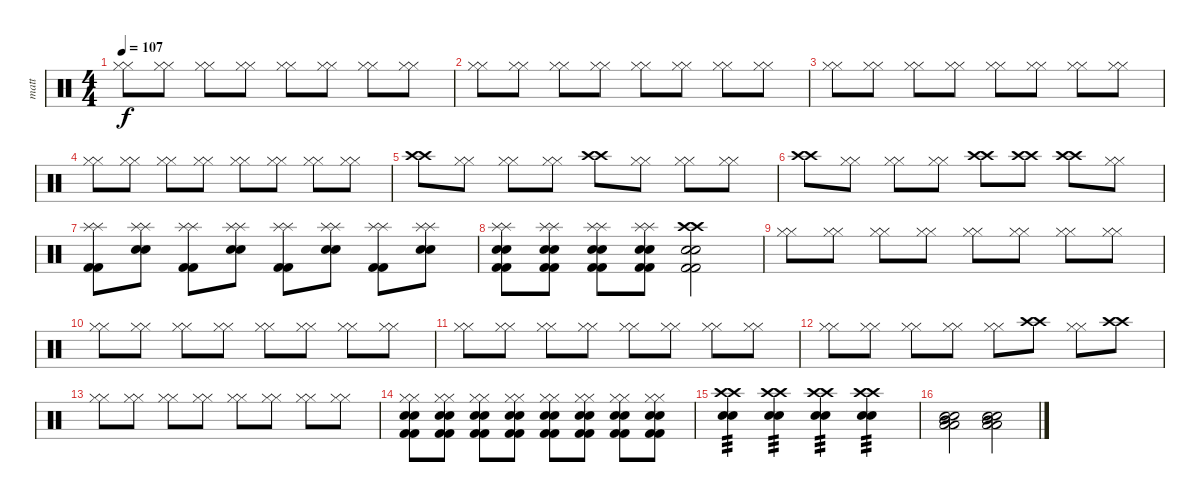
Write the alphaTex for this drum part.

\track ("matt" "matt") {instrument percussion}
\staff {score}
\articulation defaults
\ts (4 4)
\tempo 107
\clef neutral
\ks c
("Hi-Hat (closed)" "Hi-Hat (closed)").8{dy f} ("Hi-Hat (closed)" "Hi-Hat (closed)").8 ("Hi-Hat (closed)" "Hi-Hat (closed)").8 ("Hi-Hat (closed)" "Hi-Hat (closed)").8 ("Hi-Hat (closed)" "Hi-Hat (closed)").8 ("Hi-Hat (closed)" "Hi-Hat (closed)").8 ("Hi-Hat (closed)" "Hi-Hat (closed)").8 ("Hi-Hat (closed)" "Hi-Hat (closed)").8 |
("Hi-Hat (closed)" "Hi-Hat (closed)").8 ("Hi-Hat (closed)" "Hi-Hat (closed)").8 ("Hi-Hat (closed)" "Hi-Hat (closed)").8 ("Hi-Hat (closed)" "Hi-Hat (closed)").8 ("Hi-Hat (closed)" "Hi-Hat (closed)").8 ("Hi-Hat (closed)" "Hi-Hat (closed)").8 ("Hi-Hat (closed)" "Hi-Hat (closed)").8 ("Hi-Hat (closed)" "Hi-Hat (closed)").8 |
("Hi-Hat (closed)" "Hi-Hat (closed)").8 ("Hi-Hat (closed)" "Hi-Hat (closed)").8 ("Hi-Hat (closed)" "Hi-Hat (closed)").8 ("Hi-Hat (closed)" "Hi-Hat (closed)").8 ("Hi-Hat (closed)" "Hi-Hat (closed)").8 ("Hi-Hat (closed)" "Hi-Hat (closed)").8 ("Hi-Hat (closed)" "Hi-Hat (closed)").8 ("Hi-Hat (closed)" "Hi-Hat (closed)").8 |
("Hi-Hat (closed)" "Hi-Hat (closed)").8 ("Hi-Hat (closed)" "Hi-Hat (closed)").8 ("Hi-Hat (closed)" "Hi-Hat (closed)").8 ("Hi-Hat (closed)" "Hi-Hat (closed)").8 ("Hi-Hat (closed)" "Hi-Hat (closed)").8 ("Hi-Hat (closed)" "Hi-Hat (closed)").8 ("Hi-Hat (closed)" "Hi-Hat (closed)").8 ("Hi-Hat (closed)" "Hi-Hat (closed)").8 |
("Crash high (hit)" "Crash high (hit)").8 ("Hi-Hat (closed)" "Hi-Hat (closed)").8 ("Hi-Hat (closed)" "Hi-Hat (closed)").8 ("Hi-Hat (closed)" "Hi-Hat (closed)").8 ("Crash high (hit)" "Crash high (hit)").8 ("Hi-Hat (closed)" "Hi-Hat (closed)").8 ("Hi-Hat (closed)" "Hi-Hat (closed)").8 ("Hi-Hat (closed)" "Hi-Hat (closed)").8 |
("Crash high (hit)" "Crash high (hit)").8 ("Hi-Hat (closed)" "Hi-Hat (closed)").8 ("Hi-Hat (closed)" "Hi-Hat (closed)").8 ("Hi-Hat (closed)" "Hi-Hat (closed)").8 ("Crash high (hit)" "Crash high (hit)").8 ("Crash high (hit)" "Crash high (hit)").8 ("Crash high (hit)" "Crash high (hit)").8 ("Hi-Hat (closed)" "Hi-Hat (closed)").8 |
("Splash (hit)" "Splash (hit)" "Kick (hit) 2" "Kick (hit) 2").8 ("Splash (hit)" "Splash (hit)" "Snare (hit) 2" "Snare (hit) 2").8 ("Splash (hit)" "Splash (hit)" "Kick (hit) 2" "Kick (hit) 2").8 ("Splash (hit)" "Splash (hit)" "Snare (hit) 2" "Snare (hit) 2").8 ("Splash (hit)" "Splash (hit)" "Kick (hit) 2" "Kick (hit) 2").8 ("Splash (hit)" "Splash (hit)" "Snare (hit) 2" "Snare (hit) 2").8 ("Splash (hit)" "Splash (hit)" "Kick (hit) 2" "Kick (hit) 2").8 ("Splash (hit)" "Splash (hit)" "Snare (hit) 2" "Snare (hit) 2").8 |
("Splash (hit)" "Splash (hit)" "Kick (hit) 2" "Kick (hit) 2" "Snare (hit) 2" "Snare (hit) 2").8 ("Splash (hit)" "Splash (hit)" "Kick (hit) 2" "Kick (hit) 2" "Snare (hit) 2" "Snare (hit) 2").8 ("Splash (hit)" "Splash (hit)" "Kick (hit) 2" "Kick (hit) 2" "Snare (hit) 2" "Snare (hit) 2").8 ("Splash (hit)" "Splash (hit)" "Kick (hit) 2" "Kick (hit) 2" "Snare (hit) 2" "Snare (hit) 2").8 ("Crash high (hit)" "Crash high (hit)" "Kick (hit) 2" "Kick (hit) 2" "Snare (hit) 2" "Snare (hit) 2").2 |
("Hi-Hat (closed)" "Hi-Hat (closed)").8 ("Hi-Hat (closed)" "Hi-Hat (closed)").8 ("Hi-Hat (closed)" "Hi-Hat (closed)").8 ("Hi-Hat (closed)" "Hi-Hat (closed)").8 ("Hi-Hat (closed)" "Hi-Hat (closed)").8 ("Hi-Hat (closed)" "Hi-Hat (closed)").8 ("Hi-Hat (closed)" "Hi-Hat (closed)").8 ("Hi-Hat (closed)" "Hi-Hat (closed)").8 |
("Hi-Hat (closed)" "Hi-Hat (closed)").8 ("Hi-Hat (closed)" "Hi-Hat (closed)").8 ("Hi-Hat (closed)" "Hi-Hat (closed)").8 ("Hi-Hat (closed)" "Hi-Hat (closed)").8 ("Hi-Hat (closed)" "Hi-Hat (closed)").8 ("Hi-Hat (closed)" "Hi-Hat (closed)").8 ("Hi-Hat (closed)" "Hi-Hat (closed)").8 ("Hi-Hat (closed)" "Hi-Hat (closed)").8 |
("Hi-Hat (closed)" "Hi-Hat (closed)").8 ("Hi-Hat (closed)" "Hi-Hat (closed)").8 ("Hi-Hat (closed)" "Hi-Hat (closed)").8 ("Hi-Hat (closed)" "Hi-Hat (closed)").8 ("Hi-Hat (closed)" "Hi-Hat (closed)").8 ("Hi-Hat (closed)" "Hi-Hat (closed)").8 ("Hi-Hat (closed)" "Hi-Hat (closed)").8 ("Hi-Hat (closed)" "Hi-Hat (closed)").8 |
("Hi-Hat (closed)" "Hi-Hat (closed)").8 ("Hi-Hat (closed)" "Hi-Hat (closed)").8 ("Hi-Hat (closed)" "Hi-Hat (closed)").8 ("Hi-Hat (closed)" "Hi-Hat (closed)").8 ("Hi-Hat (closed)" "Hi-Hat (closed)").8 ("Crash high (hit)" "Crash high (hit)").8 ("Hi-Hat (closed)" "Hi-Hat (closed)").8 ("Crash high (hit)" "Crash high (hit)").8 |
("Hi-Hat (closed)" "Hi-Hat (closed)").8 ("Hi-Hat (closed)" "Hi-Hat (closed)").8 ("Hi-Hat (closed)" "Hi-Hat (closed)").8 ("Hi-Hat (closed)" "Hi-Hat (closed)").8 ("Hi-Hat (closed)" "Hi-Hat (closed)").8 ("Hi-Hat (closed)" "Hi-Hat (closed)").8 ("Hi-Hat (closed)" "Hi-Hat (closed)").8 ("Hi-Hat (closed)" "Hi-Hat (closed)").8 |
("Hi-Hat (closed)" "Hi-Hat (closed)" "Kick (hit) 2" "Kick (hit) 2" "Snare (hit) 2" "Snare (hit) 2").8 ("Hi-Hat (closed)" "Hi-Hat (closed)" "Kick (hit) 2" "Kick (hit) 2" "Snare (hit) 2" "Snare (hit) 2").8 ("Hi-Hat (closed)" "Hi-Hat (closed)" "Kick (hit) 2" "Kick (hit) 2" "Snare (hit) 2" "Snare (hit) 2").8 ("Hi-Hat (closed)" "Hi-Hat (closed)" "Kick (hit) 2" "Kick (hit) 2" "Snare (hit) 2" "Snare (hit) 2").8 ("Hi-Hat (closed)" "Hi-Hat (closed)" "Kick (hit) 2" "Kick (hit) 2" "Snare (hit) 2" "Snare (hit) 2").8 ("Hi-Hat (closed)" "Hi-Hat (closed)" "Kick (hit) 2" "Kick (hit) 2" "Snare (hit) 2" "Snare (hit) 2").8 ("Hi-Hat (closed)" "Hi-Hat (closed)" "Kick (hit) 2" "Kick (hit) 2" "Snare (hit) 2" "Snare (hit) 2").8 ("Hi-Hat (closed)" "Hi-Hat (closed)" "Kick (hit) 2" "Kick (hit) 2" "Snare (hit) 2" "Snare (hit) 2").8 |
("Crash high (hit)" "Crash high (hit)" "Snare (hit) 2" "Snare (hit) 2").4{tp 3} ("Crash high (hit)" "Crash high (hit)" "Snare (hit) 2" "Snare (hit) 2").4{tp 3} ("Crash high (hit)" "Crash high (hit)" "Snare (hit) 2" "Snare (hit) 2").4{tp 3} ("Crash high (hit)" "Crash high (hit)" "Snare (hit) 2" "Snare (hit) 2").4{tp 3} |
("Mid Tom (hit)" "Mid Tom (hit)" "Low Tom (hit)" "Low Tom (hit)" "Snare (hit) 2" "Snare (hit) 2").2 ("Mid Tom (hit)" "Mid Tom (hit)" "Low Tom (hit)" "Low Tom (hit)" "Snare (hit) 2" "Snare (hit) 2").2
